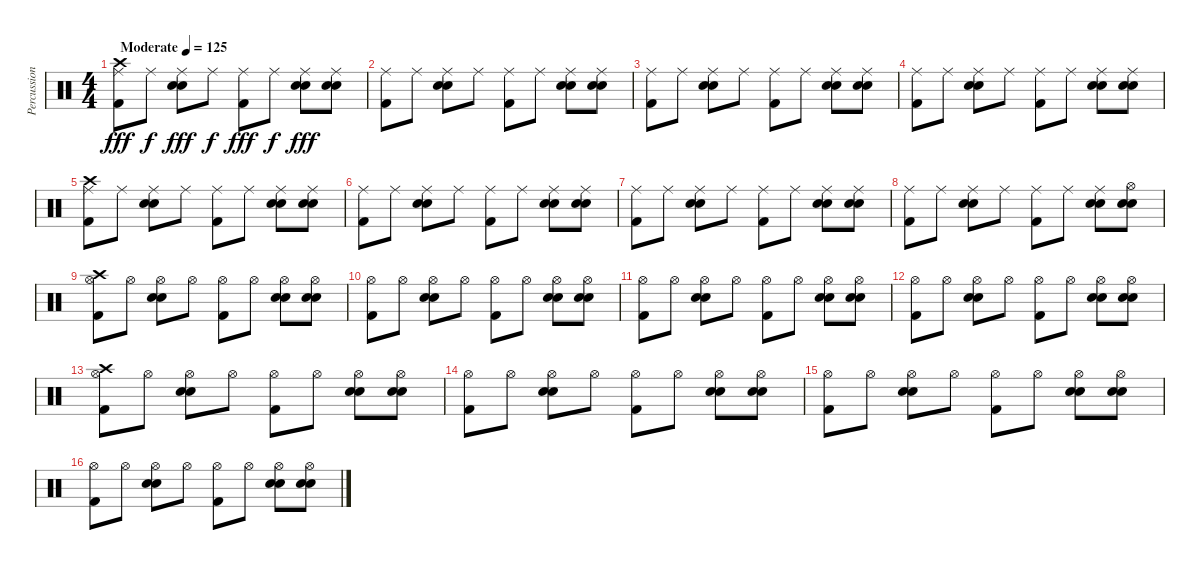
\track ("Percussion" "Percussion") {instrument percussion}
\staff {score}
\articulation defaults
\ts (4 4)
\tempo (125 "Moderate")
\clef neutral
\ks c
("Crash high (hit)" "Ride (middle)" "Kick (hit) 2").8{dy fff} "Ride (middle)".8{dy f} ("Electric Snare (hit)" "Snare (hit) 2" "Ride (middle)").8{dy fff} "Ride (middle)".8{dy f} ("Ride (middle)" "Kick (hit) 2").8{dy fff} "Ride (middle)".8{dy f} ("Electric Snare (hit)" "Snare (hit) 2" "Ride (middle)").8{dy fff} ("Electric Snare (hit)" "Snare (hit) 2" "Ride (middle)").8 |
("Ride (middle)" "Kick (hit) 2").8 "Ride (middle)".8 ("Electric Snare (hit)" "Snare (hit) 2" "Ride (middle)").8 "Ride (middle)".8 ("Ride (middle)" "Kick (hit) 2").8 "Ride (middle)".8 ("Electric Snare (hit)" "Snare (hit) 2" "Ride (middle)").8 ("Electric Snare (hit)" "Snare (hit) 2" "Ride (middle)").8 |
("Ride (middle)" "Kick (hit) 2").8 "Ride (middle)".8 ("Electric Snare (hit)" "Snare (hit) 2" "Ride (middle)").8 "Ride (middle)".8 ("Ride (middle)" "Kick (hit) 2").8 "Ride (middle)".8 ("Electric Snare (hit)" "Snare (hit) 2" "Ride (middle)").8 ("Electric Snare (hit)" "Snare (hit) 2" "Ride (middle)").8 |
("Ride (middle)" "Kick (hit) 2").8 "Ride (middle)".8 ("Electric Snare (hit)" "Snare (hit) 2" "Ride (middle)").8 "Ride (middle)".8 ("Ride (middle)" "Kick (hit) 2").8 "Ride (middle)".8 ("Electric Snare (hit)" "Snare (hit) 2" "Ride (middle)").8 ("Electric Snare (hit)" "Snare (hit) 2" "Ride (middle)").8 |
("Crash high (hit)" "Ride (middle)" "Kick (hit) 2").8 "Ride (middle)".8 ("Electric Snare (hit)" "Snare (hit) 2" "Ride (middle)").8 "Ride (middle)".8 ("Ride (middle)" "Kick (hit) 2").8 "Ride (middle)".8 ("Electric Snare (hit)" "Snare (hit) 2" "Ride (middle)").8 ("Electric Snare (hit)" "Snare (hit) 2" "Ride (middle)").8 |
("Ride (middle)" "Kick (hit) 2").8 "Ride (middle)".8 ("Electric Snare (hit)" "Snare (hit) 2" "Ride (middle)").8 "Ride (middle)".8 ("Ride (middle)" "Kick (hit) 2").8 "Ride (middle)".8 ("Electric Snare (hit)" "Snare (hit) 2" "Ride (middle)").8 ("Electric Snare (hit)" "Snare (hit) 2" "Ride (middle)").8 |
("Ride (middle)" "Kick (hit) 2").8 "Ride (middle)".8 ("Electric Snare (hit)" "Snare (hit) 2" "Ride (middle)").8 "Ride (middle)".8 ("Ride (middle)" "Kick (hit) 2").8 "Ride (middle)".8 ("Electric Snare (hit)" "Snare (hit) 2" "Ride (middle)").8 ("Electric Snare (hit)" "Snare (hit) 2" "Ride (middle)").8 |
("Ride (middle)" "Kick (hit) 2").8 "Ride (middle)".8 ("Electric Snare (hit)" "Snare (hit) 2" "Ride (middle)").8 "Ride (middle)".8 ("Ride (middle)" "Kick (hit) 2").8 "Ride (middle)".8 ("Electric Snare (hit)" "Snare (hit) 2" "Ride (middle)").8 ("Electric Snare (hit)" "Snare (hit) 2" "Hi-Hat (open)").8 |
("Crash high (hit)" "Hi-Hat (open)" "Kick (hit) 2").8 "Hi-Hat (open)".8 ("Electric Snare (hit)" "Snare (hit) 2" "Hi-Hat (open)").8 "Hi-Hat (open)".8 ("Hi-Hat (open)" "Kick (hit) 2").8 "Hi-Hat (open)".8 ("Electric Snare (hit)" "Snare (hit) 2" "Hi-Hat (open)").8 ("Electric Snare (hit)" "Snare (hit) 2" "Hi-Hat (open)").8 |
("Hi-Hat (open)" "Kick (hit) 2").8 "Hi-Hat (open)".8 ("Electric Snare (hit)" "Snare (hit) 2" "Hi-Hat (open)").8 "Hi-Hat (open)".8 ("Hi-Hat (open)" "Kick (hit) 2").8 "Hi-Hat (open)".8 ("Electric Snare (hit)" "Snare (hit) 2" "Hi-Hat (open)").8 ("Electric Snare (hit)" "Snare (hit) 2" "Hi-Hat (open)").8 |
("Hi-Hat (open)" "Kick (hit) 2").8 "Hi-Hat (open)".8 ("Electric Snare (hit)" "Snare (hit) 2" "Hi-Hat (open)").8 "Hi-Hat (open)".8 ("Hi-Hat (open)" "Kick (hit) 2").8 "Hi-Hat (open)".8 ("Electric Snare (hit)" "Snare (hit) 2" "Hi-Hat (open)").8 ("Electric Snare (hit)" "Snare (hit) 2" "Hi-Hat (open)").8 |
("Hi-Hat (open)" "Kick (hit) 2").8 "Hi-Hat (open)".8 ("Electric Snare (hit)" "Snare (hit) 2" "Hi-Hat (open)").8 "Hi-Hat (open)".8 ("Hi-Hat (open)" "Kick (hit) 2").8 "Hi-Hat (open)".8 ("Electric Snare (hit)" "Snare (hit) 2" "Hi-Hat (open)").8 ("Electric Snare (hit)" "Snare (hit) 2" "Hi-Hat (open)").8 |
("Crash high (hit)" "Hi-Hat (open)" "Kick (hit) 2").8 "Hi-Hat (open)".8 ("Electric Snare (hit)" "Snare (hit) 2" "Hi-Hat (open)").8 "Hi-Hat (open)".8 ("Hi-Hat (open)" "Kick (hit) 2").8 "Hi-Hat (open)".8 ("Electric Snare (hit)" "Snare (hit) 2" "Hi-Hat (open)").8 ("Electric Snare (hit)" "Snare (hit) 2" "Hi-Hat (open)").8 |
("Hi-Hat (open)" "Kick (hit) 2").8 "Hi-Hat (open)".8 ("Electric Snare (hit)" "Snare (hit) 2" "Hi-Hat (open)").8 "Hi-Hat (open)".8 ("Hi-Hat (open)" "Kick (hit) 2").8 "Hi-Hat (open)".8 ("Electric Snare (hit)" "Snare (hit) 2" "Hi-Hat (open)").8 ("Electric Snare (hit)" "Snare (hit) 2" "Hi-Hat (open)").8 |
("Hi-Hat (open)" "Kick (hit) 2").8 "Hi-Hat (open)".8 ("Electric Snare (hit)" "Snare (hit) 2" "Hi-Hat (open)").8 "Hi-Hat (open)".8 ("Hi-Hat (open)" "Kick (hit) 2").8 "Hi-Hat (open)".8 ("Electric Snare (hit)" "Snare (hit) 2" "Hi-Hat (open)").8 ("Electric Snare (hit)" "Snare (hit) 2" "Hi-Hat (open)").8 |
("Hi-Hat (open)" "Kick (hit) 2").8 "Hi-Hat (open)".8 ("Electric Snare (hit)" "Snare (hit) 2" "Hi-Hat (open)").8 "Hi-Hat (open)".8 ("Hi-Hat (open)" "Kick (hit) 2").8 "Hi-Hat (open)".8 ("Electric Snare (hit)" "Snare (hit) 2" "Hi-Hat (open)").8 ("Electric Snare (hit)" "Snare (hit) 2" "Hi-Hat (open)").8
